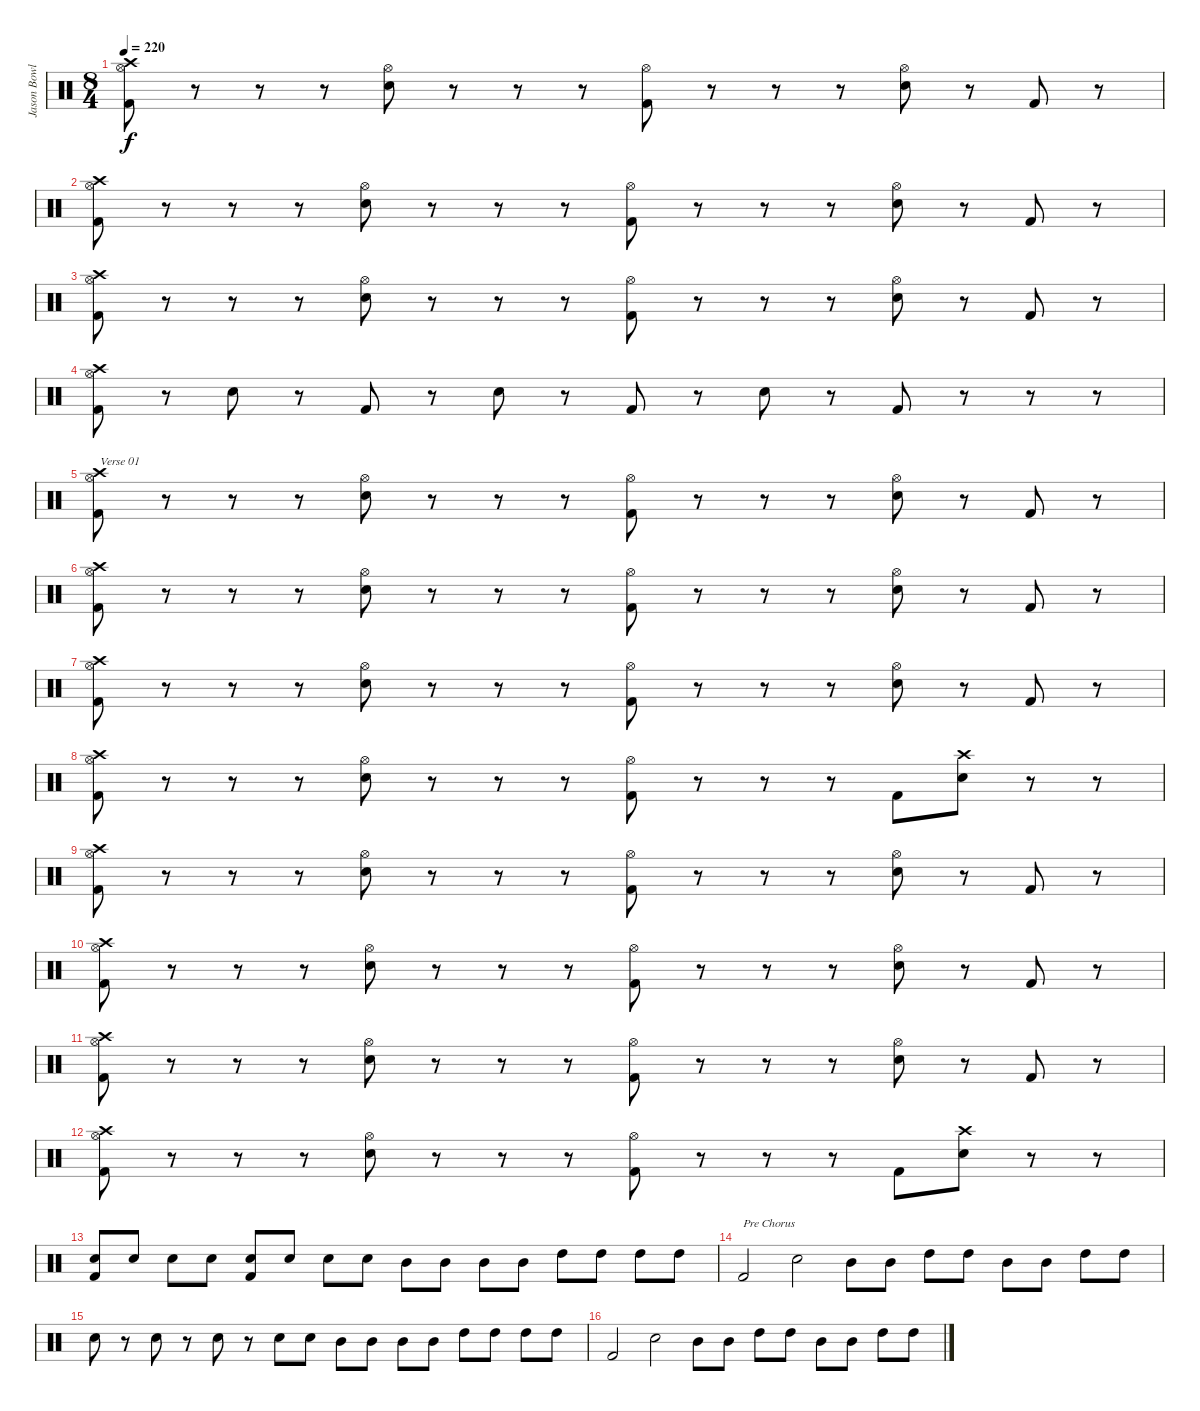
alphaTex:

\track ("Jason Bowld" "Jason Bowl") {instrument percussion}
\staff {score}
\articulation defaults
\ts (8 4)
\tempo 220
\clef neutral
\ks c
("Hi-Hat (open)" "Kick (hit) 2" "Crash high (hit)").8{dy f} r.8 r.8 r.8 ("Hi-Hat (open)" "Snare (hit) 2").8 r.8 r.8 r.8 ("Hi-Hat (open)" "Kick (hit) 2").8 r.8 r.8 r.8 ("Hi-Hat (open)" "Snare (hit) 2").8 r.8 "Kick (hit) 2".8 r.8 |
("Hi-Hat (open)" "Kick (hit) 2" "Crash high (hit)").8 r.8 r.8 r.8 ("Hi-Hat (open)" "Snare (hit) 2").8 r.8 r.8 r.8 ("Hi-Hat (open)" "Kick (hit) 2").8 r.8 r.8 r.8 ("Hi-Hat (open)" "Snare (hit) 2").8 r.8 "Kick (hit) 2".8 r.8 |
("Hi-Hat (open)" "Kick (hit) 2" "Crash high (hit)").8 r.8 r.8 r.8 ("Hi-Hat (open)" "Snare (hit) 2").8 r.8 r.8 r.8 ("Hi-Hat (open)" "Kick (hit) 2").8 r.8 r.8 r.8 ("Hi-Hat (open)" "Snare (hit) 2").8 r.8 "Kick (hit) 2".8 r.8 |
("Hi-Hat (open)" "Kick (hit) 2" "Crash high (hit)").8 r.8 "Snare (hit) 2".8 r.8 "Kick (hit) 2".8 r.8 "Snare (hit) 2".8 r.8 "Kick (hit) 2".8 r.8 "Snare (hit) 2".8 r.8 "Kick (hit) 2".8 r.8 r.8 r.8 |
("Hi-Hat (open)" "Kick (hit) 2" "Crash high (hit)").8{txt "Verse 01"} r.8 r.8 r.8 ("Hi-Hat (open)" "Snare (hit) 2").8 r.8 r.8 r.8 ("Hi-Hat (open)" "Kick (hit) 2").8 r.8 r.8 r.8 ("Hi-Hat (open)" "Snare (hit) 2").8 r.8 "Kick (hit) 2".8 r.8 |
("Hi-Hat (open)" "Kick (hit) 2" "Crash high (hit)").8 r.8 r.8 r.8 ("Hi-Hat (open)" "Snare (hit) 2").8 r.8 r.8 r.8 ("Hi-Hat (open)" "Kick (hit) 2").8 r.8 r.8 r.8 ("Hi-Hat (open)" "Snare (hit) 2").8 r.8 "Kick (hit) 2".8 r.8 |
("Hi-Hat (open)" "Kick (hit) 2" "Crash high (hit)").8 r.8 r.8 r.8 ("Hi-Hat (open)" "Snare (hit) 2").8 r.8 r.8 r.8 ("Hi-Hat (open)" "Kick (hit) 2").8 r.8 r.8 r.8 ("Hi-Hat (open)" "Snare (hit) 2").8 r.8 "Kick (hit) 2".8 r.8 |
("Hi-Hat (open)" "Kick (hit) 2" "Crash high (hit)").8 r.8 r.8 r.8 ("Hi-Hat (open)" "Snare (hit) 2").8 r.8 r.8 r.8 ("Hi-Hat (open)" "Kick (hit) 2").8 r.8 r.8 r.8 "Kick (hit) 2".8 ("Snare (hit) 2" "Crash high (hit)").8 r.8 r.8 |
("Hi-Hat (open)" "Kick (hit) 2" "Crash high (hit)").8 r.8 r.8 r.8 ("Hi-Hat (open)" "Snare (hit) 2").8 r.8 r.8 r.8 ("Hi-Hat (open)" "Kick (hit) 2").8 r.8 r.8 r.8 ("Hi-Hat (open)" "Snare (hit) 2").8 r.8 "Kick (hit) 2".8 r.8 |
("Hi-Hat (open)" "Kick (hit) 2" "Crash high (hit)").8 r.8 r.8 r.8 ("Hi-Hat (open)" "Snare (hit) 2").8 r.8 r.8 r.8 ("Hi-Hat (open)" "Kick (hit) 2").8 r.8 r.8 r.8 ("Hi-Hat (open)" "Snare (hit) 2").8 r.8 "Kick (hit) 2".8 r.8 |
("Hi-Hat (open)" "Kick (hit) 2" "Crash high (hit)").8 r.8 r.8 r.8 ("Hi-Hat (open)" "Snare (hit) 2").8 r.8 r.8 r.8 ("Hi-Hat (open)" "Kick (hit) 2").8 r.8 r.8 r.8 ("Hi-Hat (open)" "Snare (hit) 2").8 r.8 "Kick (hit) 2".8 r.8 |
("Hi-Hat (open)" "Kick (hit) 2" "Crash high (hit)").8 r.8 r.8 r.8 ("Hi-Hat (open)" "Snare (hit) 2").8 r.8 r.8 r.8 ("Hi-Hat (open)" "Kick (hit) 2").8 r.8 r.8 r.8 "Kick (hit) 2".8 ("Snare (hit) 2" "Crash high (hit)").8 r.8 r.8 |
("Snare (hit) 2" "Kick (hit) 2").8 "Snare (hit) 2".8 "Snare (hit) 2".8 "Snare (hit) 2".8 ("Snare (hit) 2" "Kick (hit) 2").8 "Snare (hit) 2".8 "Snare (hit) 2".8 "Snare (hit) 2".8 "Mid Tom (hit)".8 "Mid Tom (hit)".8 "Mid Tom (hit)".8 "Mid Tom (hit)".8 "High Tom (hit)".8 "High Tom (hit)".8 "High Tom (hit)".8 "High Tom (hit)".8 |
"Kick (hit) 2".2{txt "Pre Chorus"} "Snare (hit) 2".2 "Mid Tom (hit)".8 "Mid Tom (hit)".8 "High Tom (hit)".8 "High Tom (hit)".8 "Mid Tom (hit)".8 "Mid Tom (hit)".8 "High Tom (hit)".8 "High Tom (hit)".8 |
"Snare (hit) 2".8 r.8 "Snare (hit) 2".8 r.8 "Snare (hit) 2".8 r.8 "Snare (hit) 2".8 "Snare (hit) 2".8 "Mid Tom (hit)".8 "Mid Tom (hit)".8 "Mid Tom (hit)".8 "Mid Tom (hit)".8 "High Tom (hit)".8 "High Tom (hit)".8 "High Tom (hit)".8 "High Tom (hit)".8 |
"Kick (hit) 2".2 "Snare (hit) 2".2 "Mid Tom (hit)".8 "Mid Tom (hit)".8 "High Tom (hit)".8 "High Tom (hit)".8 "Mid Tom (hit)".8 "Mid Tom (hit)".8 "High Tom (hit)".8 "High Tom (hit)".8
